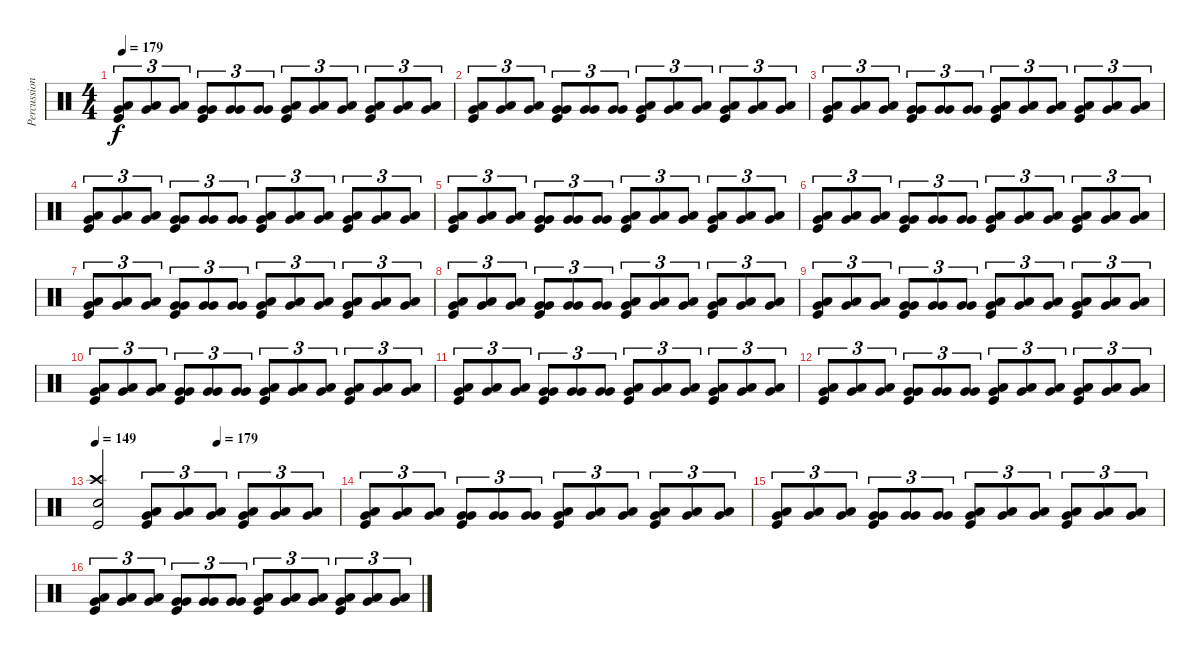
\track ("Percussion" "Percussion") {instrument percussion}
\staff {score}
\articulation defaults
\ts (4 4)
\tempo 179
\clef neutral
\ks c
("Low Tom (hit)" "Very Low Tom (hit)" "Kick (hit)").8{tu (3 2) dy f} ("Low Tom (hit)" "Very Low Tom (hit)").8{tu (3 2)} ("Low Tom (hit)" "Very Low Tom (hit)").8{tu (3 2)} ("Very Low Tom (hit)" "Very Low Tom (hit)" "Kick (hit)").8{tu (3 2)} ("Very Low Tom (hit)" "Very Low Tom (hit)").8{tu (3 2)} ("Very Low Tom (hit)" "Very Low Tom (hit)").8{tu (3 2)} ("Low Tom (hit)" "Very Low Tom (hit)" "Kick (hit)").8{tu (3 2)} ("Low Tom (hit)" "Very Low Tom (hit)").8{tu (3 2)} ("Low Tom (hit)" "Very Low Tom (hit)").8{tu (3 2)} ("Very Low Tom (hit)" "Low Floor Tom (hit)" "Kick (hit)").8{tu (3 2)} ("Very Low Tom (hit)" "Low Floor Tom (hit)").8{tu (3 2)} ("Very Low Tom (hit)" "Low Floor Tom (hit)").8{tu (3 2)} |
("Low Tom (hit)" "Very Low Tom (hit)" "Kick (hit)").8{tu (3 2)} ("Low Tom (hit)" "Very Low Tom (hit)").8{tu (3 2)} ("Low Tom (hit)" "Very Low Tom (hit)").8{tu (3 2)} ("Very Low Tom (hit)" "Very Low Tom (hit)" "Kick (hit)").8{tu (3 2)} ("Very Low Tom (hit)" "Very Low Tom (hit)").8{tu (3 2)} ("Very Low Tom (hit)" "Very Low Tom (hit)").8{tu (3 2)} ("Low Tom (hit)" "Very Low Tom (hit)" "Kick (hit)").8{tu (3 2)} ("Low Tom (hit)" "Very Low Tom (hit)").8{tu (3 2)} ("Low Tom (hit)" "Very Low Tom (hit)").8{tu (3 2)} ("Very Low Tom (hit)" "Low Floor Tom (hit)" "Kick (hit)").8{tu (3 2)} ("Very Low Tom (hit)" "Low Floor Tom (hit)").8{tu (3 2)} ("Very Low Tom (hit)" "Low Floor Tom (hit)").8{tu (3 2)} |
("Low Tom (hit)" "Very Low Tom (hit)" "Kick (hit)").8{tu (3 2)} ("Low Tom (hit)" "Very Low Tom (hit)").8{tu (3 2)} ("Low Tom (hit)" "Very Low Tom (hit)").8{tu (3 2)} ("Very Low Tom (hit)" "Very Low Tom (hit)" "Kick (hit)").8{tu (3 2)} ("Very Low Tom (hit)" "Very Low Tom (hit)").8{tu (3 2)} ("Very Low Tom (hit)" "Very Low Tom (hit)").8{tu (3 2)} ("Low Tom (hit)" "Very Low Tom (hit)" "Kick (hit)").8{tu (3 2)} ("Low Tom (hit)" "Very Low Tom (hit)").8{tu (3 2)} ("Low Tom (hit)" "Very Low Tom (hit)").8{tu (3 2)} ("Very Low Tom (hit)" "Low Floor Tom (hit)" "Kick (hit)").8{tu (3 2)} ("Very Low Tom (hit)" "Low Floor Tom (hit)").8{tu (3 2)} ("Very Low Tom (hit)" "Low Floor Tom (hit)").8{tu (3 2)} |
("Low Tom (hit)" "Very Low Tom (hit)" "Kick (hit)").8{tu (3 2)} ("Low Tom (hit)" "Very Low Tom (hit)").8{tu (3 2)} ("Low Tom (hit)" "Very Low Tom (hit)").8{tu (3 2)} ("Very Low Tom (hit)" "Very Low Tom (hit)" "Kick (hit)").8{tu (3 2)} ("Very Low Tom (hit)" "Very Low Tom (hit)").8{tu (3 2)} ("Very Low Tom (hit)" "Very Low Tom (hit)").8{tu (3 2)} ("Low Tom (hit)" "Very Low Tom (hit)" "Kick (hit)").8{tu (3 2)} ("Low Tom (hit)" "Very Low Tom (hit)").8{tu (3 2)} ("Low Tom (hit)" "Very Low Tom (hit)").8{tu (3 2)} ("Very Low Tom (hit)" "Low Floor Tom (hit)" "Kick (hit)").8{tu (3 2)} ("Very Low Tom (hit)" "Low Floor Tom (hit)").8{tu (3 2)} ("Very Low Tom (hit)" "Low Floor Tom (hit)").8{tu (3 2)} |
("Low Tom (hit)" "Very Low Tom (hit)" "Kick (hit)").8{tu (3 2)} ("Low Tom (hit)" "Very Low Tom (hit)").8{tu (3 2)} ("Low Tom (hit)" "Very Low Tom (hit)").8{tu (3 2)} ("Very Low Tom (hit)" "Very Low Tom (hit)" "Kick (hit)").8{tu (3 2)} ("Very Low Tom (hit)" "Very Low Tom (hit)").8{tu (3 2)} ("Very Low Tom (hit)" "Very Low Tom (hit)").8{tu (3 2)} ("Low Tom (hit)" "Very Low Tom (hit)" "Kick (hit)").8{tu (3 2)} ("Low Tom (hit)" "Very Low Tom (hit)").8{tu (3 2)} ("Low Tom (hit)" "Very Low Tom (hit)").8{tu (3 2)} ("Very Low Tom (hit)" "Low Floor Tom (hit)" "Kick (hit)").8{tu (3 2)} ("Very Low Tom (hit)" "Low Floor Tom (hit)").8{tu (3 2)} ("Very Low Tom (hit)" "Low Floor Tom (hit)").8{tu (3 2)} |
("Low Tom (hit)" "Very Low Tom (hit)" "Kick (hit)").8{tu (3 2)} ("Low Tom (hit)" "Very Low Tom (hit)").8{tu (3 2)} ("Low Tom (hit)" "Very Low Tom (hit)").8{tu (3 2)} ("Very Low Tom (hit)" "Very Low Tom (hit)" "Kick (hit)").8{tu (3 2)} ("Very Low Tom (hit)" "Very Low Tom (hit)").8{tu (3 2)} ("Very Low Tom (hit)" "Very Low Tom (hit)").8{tu (3 2)} ("Low Tom (hit)" "Very Low Tom (hit)" "Kick (hit)").8{tu (3 2)} ("Low Tom (hit)" "Very Low Tom (hit)").8{tu (3 2)} ("Low Tom (hit)" "Very Low Tom (hit)").8{tu (3 2)} ("Very Low Tom (hit)" "Low Floor Tom (hit)" "Kick (hit)").8{tu (3 2)} ("Very Low Tom (hit)" "Low Floor Tom (hit)").8{tu (3 2)} ("Very Low Tom (hit)" "Low Floor Tom (hit)").8{tu (3 2)} |
("Low Tom (hit)" "Very Low Tom (hit)" "Kick (hit)").8{tu (3 2)} ("Low Tom (hit)" "Very Low Tom (hit)").8{tu (3 2)} ("Low Tom (hit)" "Very Low Tom (hit)").8{tu (3 2)} ("Very Low Tom (hit)" "Very Low Tom (hit)" "Kick (hit)").8{tu (3 2)} ("Very Low Tom (hit)" "Very Low Tom (hit)").8{tu (3 2)} ("Very Low Tom (hit)" "Very Low Tom (hit)").8{tu (3 2)} ("Low Tom (hit)" "Very Low Tom (hit)" "Kick (hit)").8{tu (3 2)} ("Low Tom (hit)" "Very Low Tom (hit)").8{tu (3 2)} ("Low Tom (hit)" "Very Low Tom (hit)").8{tu (3 2)} ("Very Low Tom (hit)" "Low Floor Tom (hit)" "Kick (hit)").8{tu (3 2)} ("Very Low Tom (hit)" "Low Floor Tom (hit)").8{tu (3 2)} ("Very Low Tom (hit)" "Low Floor Tom (hit)").8{tu (3 2)} |
("Low Tom (hit)" "Very Low Tom (hit)" "Kick (hit)").8{tu (3 2)} ("Low Tom (hit)" "Very Low Tom (hit)").8{tu (3 2)} ("Low Tom (hit)" "Very Low Tom (hit)").8{tu (3 2)} ("Very Low Tom (hit)" "Very Low Tom (hit)" "Kick (hit)").8{tu (3 2)} ("Very Low Tom (hit)" "Very Low Tom (hit)").8{tu (3 2)} ("Very Low Tom (hit)" "Very Low Tom (hit)").8{tu (3 2)} ("Low Tom (hit)" "Very Low Tom (hit)" "Kick (hit)").8{tu (3 2)} ("Low Tom (hit)" "Very Low Tom (hit)").8{tu (3 2)} ("Low Tom (hit)" "Very Low Tom (hit)").8{tu (3 2)} ("Very Low Tom (hit)" "Low Floor Tom (hit)" "Kick (hit)").8{tu (3 2)} ("Very Low Tom (hit)" "Low Floor Tom (hit)").8{tu (3 2)} ("Very Low Tom (hit)" "Low Floor Tom (hit)").8{tu (3 2)} |
("Low Tom (hit)" "Very Low Tom (hit)" "Kick (hit)").8{tu (3 2)} ("Low Tom (hit)" "Very Low Tom (hit)").8{tu (3 2)} ("Low Tom (hit)" "Very Low Tom (hit)").8{tu (3 2)} ("Very Low Tom (hit)" "Very Low Tom (hit)" "Kick (hit)").8{tu (3 2)} ("Very Low Tom (hit)" "Very Low Tom (hit)").8{tu (3 2)} ("Very Low Tom (hit)" "Very Low Tom (hit)").8{tu (3 2)} ("Low Tom (hit)" "Very Low Tom (hit)" "Kick (hit)").8{tu (3 2)} ("Low Tom (hit)" "Very Low Tom (hit)").8{tu (3 2)} ("Low Tom (hit)" "Very Low Tom (hit)").8{tu (3 2)} ("Very Low Tom (hit)" "Low Floor Tom (hit)" "Kick (hit)").8{tu (3 2)} ("Very Low Tom (hit)" "Low Floor Tom (hit)").8{tu (3 2)} ("Very Low Tom (hit)" "Low Floor Tom (hit)").8{tu (3 2)} |
("Low Tom (hit)" "Very Low Tom (hit)" "Kick (hit)").8{tu (3 2)} ("Low Tom (hit)" "Very Low Tom (hit)").8{tu (3 2)} ("Low Tom (hit)" "Very Low Tom (hit)").8{tu (3 2)} ("Very Low Tom (hit)" "Very Low Tom (hit)" "Kick (hit)").8{tu (3 2)} ("Very Low Tom (hit)" "Very Low Tom (hit)").8{tu (3 2)} ("Very Low Tom (hit)" "Very Low Tom (hit)").8{tu (3 2)} ("Low Tom (hit)" "Very Low Tom (hit)" "Kick (hit)").8{tu (3 2)} ("Low Tom (hit)" "Very Low Tom (hit)").8{tu (3 2)} ("Low Tom (hit)" "Very Low Tom (hit)").8{tu (3 2)} ("Very Low Tom (hit)" "Low Floor Tom (hit)" "Kick (hit)").8{tu (3 2)} ("Very Low Tom (hit)" "Low Floor Tom (hit)").8{tu (3 2)} ("Very Low Tom (hit)" "Low Floor Tom (hit)").8{tu (3 2)} |
("Low Tom (hit)" "Very Low Tom (hit)" "Kick (hit)").8{tu (3 2)} ("Low Tom (hit)" "Very Low Tom (hit)").8{tu (3 2)} ("Low Tom (hit)" "Very Low Tom (hit)").8{tu (3 2)} ("Very Low Tom (hit)" "Very Low Tom (hit)" "Kick (hit)").8{tu (3 2)} ("Very Low Tom (hit)" "Very Low Tom (hit)").8{tu (3 2)} ("Very Low Tom (hit)" "Very Low Tom (hit)").8{tu (3 2)} ("Low Tom (hit)" "Very Low Tom (hit)" "Kick (hit)").8{tu (3 2)} ("Low Tom (hit)" "Very Low Tom (hit)").8{tu (3 2)} ("Low Tom (hit)" "Very Low Tom (hit)").8{tu (3 2)} ("Very Low Tom (hit)" "Low Floor Tom (hit)" "Kick (hit)").8{tu (3 2)} ("Very Low Tom (hit)" "Low Floor Tom (hit)").8{tu (3 2)} ("Very Low Tom (hit)" "Low Floor Tom (hit)").8{tu (3 2)} |
("Low Tom (hit)" "Very Low Tom (hit)" "Kick (hit)").8{tu (3 2)} ("Low Tom (hit)" "Very Low Tom (hit)").8{tu (3 2)} ("Low Tom (hit)" "Very Low Tom (hit)").8{tu (3 2)} ("Very Low Tom (hit)" "Very Low Tom (hit)" "Kick (hit)").8{tu (3 2)} ("Very Low Tom (hit)" "Very Low Tom (hit)").8{tu (3 2)} ("Very Low Tom (hit)" "Very Low Tom (hit)").8{tu (3 2)} ("Low Tom (hit)" "Very Low Tom (hit)" "Kick (hit)").8{tu (3 2)} ("Low Tom (hit)" "Very Low Tom (hit)").8{tu (3 2)} ("Low Tom (hit)" "Very Low Tom (hit)").8{tu (3 2)} ("Very Low Tom (hit)" "Low Floor Tom (hit)" "Kick (hit)").8{tu (3 2)} ("Very Low Tom (hit)" "Low Floor Tom (hit)").8{tu (3 2)} ("Very Low Tom (hit)" "Low Floor Tom (hit)").8{tu (3 2)} |
\tempo 149
\tempo (179 0.5)
("Crash high (hit)" "Electric Snare (hit)" "Kick (hit)").2 ("Low Tom (hit)" "Very Low Tom (hit)" "Kick (hit)").8{tu (3 2)} ("Low Tom (hit)" "Very Low Tom (hit)").8{tu (3 2)} ("Low Tom (hit)" "Very Low Tom (hit)").8{tu (3 2)} ("Very Low Tom (hit)" "Low Floor Tom (hit)" "Kick (hit)").8{tu (3 2)} ("Very Low Tom (hit)" "Low Floor Tom (hit)").8{tu (3 2)} ("Very Low Tom (hit)" "Low Floor Tom (hit)").8{tu (3 2)} |
("Low Tom (hit)" "Very Low Tom (hit)" "Kick (hit)").8{tu (3 2)} ("Low Tom (hit)" "Very Low Tom (hit)").8{tu (3 2)} ("Low Tom (hit)" "Very Low Tom (hit)").8{tu (3 2)} ("Very Low Tom (hit)" "Very Low Tom (hit)" "Kick (hit)").8{tu (3 2)} ("Very Low Tom (hit)" "Very Low Tom (hit)").8{tu (3 2)} ("Very Low Tom (hit)" "Very Low Tom (hit)").8{tu (3 2)} ("Low Tom (hit)" "Very Low Tom (hit)" "Kick (hit)").8{tu (3 2)} ("Low Tom (hit)" "Very Low Tom (hit)").8{tu (3 2)} ("Low Tom (hit)" "Very Low Tom (hit)").8{tu (3 2)} ("Very Low Tom (hit)" "Low Floor Tom (hit)" "Kick (hit)").8{tu (3 2)} ("Very Low Tom (hit)" "Low Floor Tom (hit)").8{tu (3 2)} ("Very Low Tom (hit)" "Low Floor Tom (hit)").8{tu (3 2)} |
("Low Tom (hit)" "Very Low Tom (hit)" "Kick (hit)").8{tu (3 2)} ("Low Tom (hit)" "Very Low Tom (hit)").8{tu (3 2)} ("Low Tom (hit)" "Very Low Tom (hit)").8{tu (3 2)} ("Very Low Tom (hit)" "Very Low Tom (hit)" "Kick (hit)").8{tu (3 2)} ("Very Low Tom (hit)" "Very Low Tom (hit)").8{tu (3 2)} ("Very Low Tom (hit)" "Very Low Tom (hit)").8{tu (3 2)} ("Low Tom (hit)" "Very Low Tom (hit)" "Kick (hit)").8{tu (3 2)} ("Low Tom (hit)" "Very Low Tom (hit)").8{tu (3 2)} ("Low Tom (hit)" "Very Low Tom (hit)").8{tu (3 2)} ("Very Low Tom (hit)" "Low Floor Tom (hit)" "Kick (hit)").8{tu (3 2)} ("Very Low Tom (hit)" "Low Floor Tom (hit)").8{tu (3 2)} ("Very Low Tom (hit)" "Low Floor Tom (hit)").8{tu (3 2)} |
("Low Tom (hit)" "Very Low Tom (hit)" "Kick (hit)").8{tu (3 2)} ("Low Tom (hit)" "Very Low Tom (hit)").8{tu (3 2)} ("Low Tom (hit)" "Very Low Tom (hit)").8{tu (3 2)} ("Very Low Tom (hit)" "Very Low Tom (hit)" "Kick (hit)").8{tu (3 2)} ("Very Low Tom (hit)" "Very Low Tom (hit)").8{tu (3 2)} ("Very Low Tom (hit)" "Very Low Tom (hit)").8{tu (3 2)} ("Low Tom (hit)" "Very Low Tom (hit)" "Kick (hit)").8{tu (3 2)} ("Low Tom (hit)" "Very Low Tom (hit)").8{tu (3 2)} ("Low Tom (hit)" "Very Low Tom (hit)").8{tu (3 2)} ("Very Low Tom (hit)" "Low Floor Tom (hit)" "Kick (hit)").8{tu (3 2)} ("Very Low Tom (hit)" "Low Floor Tom (hit)").8{tu (3 2)} ("Very Low Tom (hit)" "Low Floor Tom (hit)").8{tu (3 2)}
